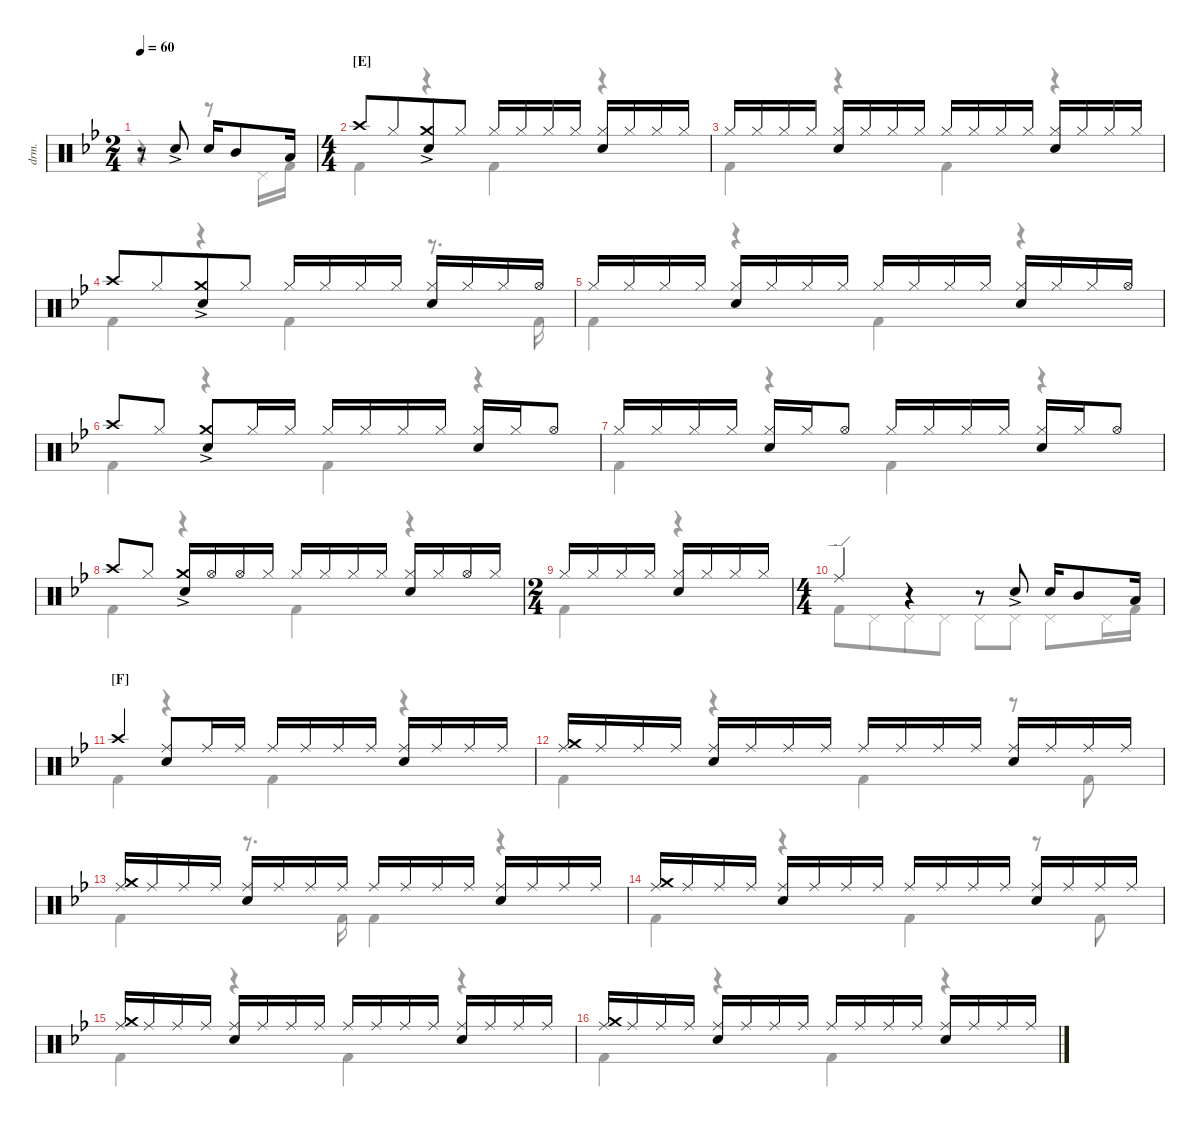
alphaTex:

\defaultSystemsLayout 4
\hideDynamics
\bracketExtendMode nobrackets
\otherSystemsTrackNameOrientation horizontal
\track ("Drumkit" "drm.") {instrument percussion}
\staff {score}
\articulation defaults
\voice
\ts (2 4)
\beaming (8 2 2)
\tempo 60
\clef neutral
\ks bb
r.8{dy mf beam Up} "Snare (hit) 2"{ac acc forcenatural}.8{beam Up} "Snare (hit) 2"{acc forcenatural}.16{beam Up} "Mid Tom (hit)"{acc forcenatural}.8{beam Up} "Low Tom (hit)"{acc forcenatural}.16{dy ff beam Up} |
\ts (4 4)
\beaming (8 2 2 2 2)
\section ("E" "")
"Crash high (hit)"{acc forcenatural}.8{dy mf beam Up} "Hi-Hat (closed)"{acc forcenatural}.8{beam Up beam merge} ("Crash medium (hit)"{ac acc forcenatural} "Snare (hit) 2"{acc forcenatural}).8{beam Up} "Hi-Hat (closed)"{acc forcenatural}.8{beam Up} "Hi-Hat (closed)"{acc forcenatural}.16{beam Up} "Hi-Hat (closed)"{acc forcenatural}.16{dy mp beam Up} "Hi-Hat (closed)"{acc forcenatural}.16{dy mf beam Up} "Hi-Hat (closed)"{acc forcenatural}.16{dy mp beam Up} ("Hi-Hat (closed)"{acc forcenatural} "Snare (hit) 2"{acc forcenatural}).16{dy mf beam Up} "Hi-Hat (closed)"{acc forcenatural}.16{dy mp beam Up} "Hi-Hat (closed)"{acc forcenatural}.16{dy mf beam Up} "Hi-Hat (closed)"{acc forcenatural}.16{dy mp beam Up} |
"Hi-Hat (closed)"{acc forcenatural}.16{dy mf beam Up} "Hi-Hat (closed)"{acc forcenatural}.16{dy mp beam Up} "Hi-Hat (closed)"{acc forcenatural}.16{dy mf beam Up} "Hi-Hat (closed)"{acc forcenatural}.16{dy mp beam Up} ("Hi-Hat (closed)"{acc forcenatural} "Snare (hit) 2"{acc forcenatural}).16{dy mf beam Up} "Hi-Hat (closed)"{acc forcenatural}.16{dy mp beam Up} "Hi-Hat (closed)"{acc forcenatural}.16{dy mf beam Up} "Hi-Hat (closed)"{acc forcenatural}.16{dy mp beam Up} "Hi-Hat (closed)"{acc forcenatural}.16{dy mf beam Up} "Hi-Hat (closed)"{acc forcenatural}.16{dy mp beam Up} "Hi-Hat (closed)"{acc forcenatural}.16{dy mf beam Up} "Hi-Hat (closed)"{acc forcenatural}.16{dy mp beam Up} ("Hi-Hat (closed)"{acc forcenatural} "Snare (hit) 2"{acc forcenatural}).16{dy mf beam Up} "Hi-Hat (closed)"{acc forcenatural}.16{dy mp beam Up} "Hi-Hat (closed)"{acc forcenatural}.16{dy mf beam Up} "Hi-Hat (closed)"{acc forcenatural}.16{dy mp beam Up} |
"Crash high (hit)"{acc forcenatural}.8{dy mf beam Up} "Hi-Hat (closed)"{acc forcenatural}.8{beam Up beam merge} ("Crash medium (hit)"{ac acc forcenatural} "Snare (hit) 2"{acc forcenatural}).8{beam Up} "Hi-Hat (closed)"{acc forcenatural}.8{beam Up} "Hi-Hat (closed)"{acc forcenatural}.16{beam Up} "Hi-Hat (closed)"{acc forcenatural}.16{dy mp beam Up} "Hi-Hat (closed)"{acc forcenatural}.16{dy mf beam Up} "Hi-Hat (closed)"{acc forcenatural}.16{dy mp beam Up} ("Hi-Hat (closed)"{acc forcenatural} "Snare (hit) 2"{acc forcenatural}).16{dy mf beam Up} "Hi-Hat (closed)"{acc forcenatural}.16{dy mp beam Up} "Hi-Hat (closed)"{acc forcenatural}.16{dy mf beam Up} "Hi-Hat (open)"{acc forcenatural}.16{beam Up} |
"Hi-Hat (closed)"{acc forcenatural}.16{beam Up} "Hi-Hat (closed)"{acc forcenatural}.16{dy mp beam Up} "Hi-Hat (closed)"{acc forcenatural}.16{dy mf beam Up} "Hi-Hat (closed)"{acc forcenatural}.16{dy mp beam Up} ("Hi-Hat (closed)"{acc forcenatural} "Snare (hit) 2"{acc forcenatural}).16{dy mf beam Up} "Hi-Hat (closed)"{acc forcenatural}.16{dy mp beam Up} "Hi-Hat (closed)"{acc forcenatural}.16{dy mf beam Up} "Hi-Hat (closed)"{acc forcenatural}.16{dy mp beam Up} "Hi-Hat (closed)"{acc forcenatural}.16{dy mf beam Up} "Hi-Hat (closed)"{acc forcenatural}.16{dy mp beam Up} "Hi-Hat (closed)"{acc forcenatural}.16{dy mf beam Up} "Hi-Hat (closed)"{acc forcenatural}.16{dy mp beam Up} ("Hi-Hat (closed)"{acc forcenatural} "Snare (hit) 2"{acc forcenatural}).16{dy mf beam Up} "Hi-Hat (closed)"{acc forcenatural}.16{dy mp beam Up} "Hi-Hat (closed)"{acc forcenatural}.16{dy mf beam Up} "Hi-Hat (open)"{acc forcenatural}.16{beam Up} |
"Crash high (hit)"{acc forcenatural}.8{beam Up} "Hi-Hat (closed)"{acc forcenatural}.8{beam Up beam split} ("Crash medium (hit)"{ac acc forcenatural} "Snare (hit) 2"{acc forcenatural}).8{beam Up} "Hi-Hat (closed)"{acc forcenatural}.16{beam Up} "Hi-Hat (closed)"{acc forcenatural}.16{beam Up} "Hi-Hat (closed)"{acc forcenatural}.16{beam Up} "Hi-Hat (closed)"{acc forcenatural}.16{dy mp beam Up} "Hi-Hat (closed)"{acc forcenatural}.16{dy mf beam Up} "Hi-Hat (closed)"{acc forcenatural}.16{dy mp beam Up} ("Hi-Hat (closed)"{acc forcenatural} "Snare (hit) 2"{acc forcenatural}).16{dy mf beam Up} "Hi-Hat (closed)"{acc forcenatural}.16{dy mp beam Up} "Hi-Hat (open)"{acc forcenatural}.8{dy mf beam Up} |
"Hi-Hat (closed)"{acc forcenatural}.16{beam Up} "Hi-Hat (closed)"{acc forcenatural}.16{dy mp beam Up} "Hi-Hat (closed)"{acc forcenatural}.16{dy mf beam Up} "Hi-Hat (closed)"{acc forcenatural}.16{dy mp beam Up} ("Hi-Hat (closed)"{acc forcenatural} "Snare (hit) 2"{acc forcenatural}).16{dy mf beam Up} "Hi-Hat (closed)"{acc forcenatural}.16{dy mp beam Up} "Hi-Hat (open)"{acc forcenatural}.8{dy mf beam Up} "Hi-Hat (closed)"{acc forcenatural}.16{beam Up} "Hi-Hat (closed)"{acc forcenatural}.16{dy mp beam Up} "Hi-Hat (closed)"{acc forcenatural}.16{dy mf beam Up} "Hi-Hat (closed)"{acc forcenatural}.16{dy mp beam Up} ("Hi-Hat (closed)"{acc forcenatural} "Snare (hit) 2"{acc forcenatural}).16{dy mf beam Up} "Hi-Hat (closed)"{acc forcenatural}.16{dy mp beam Up} "Hi-Hat (open)"{acc forcenatural}.8{dy mf beam Up} |
"Crash high (hit)"{acc forcenatural}.8{beam Up} "Hi-Hat (closed)"{acc forcenatural}.8{beam Up beam split} ("Crash medium (hit)"{ac acc forcenatural} "Snare (hit) 2"{acc forcenatural}).16{beam Up} "Hi-Hat (open)"{acc forcenatural}.16{beam Up} "Hi-Hat (open)"{acc forcenatural}.16{beam Up} "Hi-Hat (closed)"{acc forcenatural}.16{beam Up} "Hi-Hat (closed)"{acc forcenatural}.16{beam Up} "Hi-Hat (closed)"{acc forcenatural}.16{dy mp beam Up} "Hi-Hat (closed)"{acc forcenatural}.16{dy mf beam Up} "Hi-Hat (closed)"{acc forcenatural}.16{dy mp beam Up} ("Hi-Hat (closed)"{acc forcenatural} "Snare (hit) 2"{acc forcenatural}).16{dy mf beam Up} "Hi-Hat (closed)"{acc forcenatural}.16{dy mp beam Up} "Hi-Hat (open)"{acc forcenatural}.16{dy mf beam Up} "Hi-Hat (closed)"{acc forcenatural}.16{beam Up} |
\ts (2 4)
\beaming (8 2 2)
"Hi-Hat (closed)"{acc forcenatural}.16{beam Up} "Hi-Hat (closed)"{acc forcenatural}.16{dy mp beam Up} "Hi-Hat (closed)"{acc forcenatural}.16{dy mf beam Up} "Hi-Hat (closed)"{acc forcenatural}.16{dy mp beam Up} ("Hi-Hat (closed)"{acc forcenatural} "Snare (hit) 2"{acc forcenatural}).16{dy mf beam Up} "Hi-Hat (closed)"{acc forcenatural}.16{dy mp beam Up} "Hi-Hat (closed)"{acc forcenatural}.16{dy mf beam Up} "Hi-Hat (closed)"{acc forcenatural}.16{dy mp beam Up} |
\ts (4 4)
\beaming (8 2 2 2 2)
"Ride (edge)"{acc forcenatural}.4{dy mf beam Up} r.4{beam Up} r.8{beam Up} "Snare (hit) 2"{ac acc forcenatural}.8{beam Up} "Snare (hit) 2"{acc forcenatural}.16{beam Up} "Mid Tom (hit)"{acc forcenatural}.8{beam Up} "Low Tom (hit)"{acc forcenatural}.16{dy ff beam Up} |
\section ("F" "")
"Crash high (hit)"{acc forcenatural}.4{dy mf beam Up} ("Ride (middle)"{acc forcenatural} "Snare (hit) 2"{acc forcenatural}).8{beam Up} "Ride (middle)"{acc forcenatural}.16{beam Up} "Ride (middle)"{acc forcenatural}.16{dy mp beam Up} "Ride (middle)"{acc forcenatural}.16{dy mf beam Up} "Ride (middle)"{acc forcenatural}.16{dy mp beam Up} "Ride (middle)"{acc forcenatural}.16{dy mf beam Up} "Ride (middle)"{acc forcenatural}.16{dy mp beam Up} ("Ride (middle)"{acc forcenatural} "Snare (hit) 2"{acc forcenatural}).16{dy mf beam Up} "Ride (middle)"{acc forcenatural}.16{dy mp beam Up} "Ride (middle)"{acc forcenatural}.16{beam Up} "Ride (middle)"{acc forcenatural}.16{dy mf beam Up} |
("Crash medium (hit)"{acc forcenatural} "Ride (middle)"{acc forcenatural}).16{beam Up} "Ride (middle)"{acc forcenatural}.16{dy mp beam Up} "Ride (middle)"{acc forcenatural}.16{dy mf beam Up} "Ride (middle)"{acc forcenatural}.16{dy mp beam Up} ("Ride (middle)"{acc forcenatural} "Snare (hit) 2"{acc forcenatural}).16{dy mf beam Up} "Ride (middle)"{acc forcenatural}.16{dy mp beam Up} "Ride (middle)"{acc forcenatural}.16{beam Up} "Ride (middle)"{acc forcenatural}.16{dy mf beam Up} "Ride (middle)"{acc forcenatural}.16{beam Up} "Ride (middle)"{acc forcenatural}.16{dy mp beam Up} "Ride (middle)"{acc forcenatural}.16{dy mf beam Up} "Ride (middle)"{acc forcenatural}.16{dy mp beam Up} ("Ride (middle)"{acc forcenatural} "Snare (hit) 2"{acc forcenatural}).16{dy mf beam Up} "Ride (middle)"{acc forcenatural}.16{dy mp beam Up} "Ride (middle)"{acc forcenatural}.16{beam Up} "Ride (middle)"{acc forcenatural}.16{dy mf beam Up} |
("Ride (middle)"{acc forcenatural} "Crash medium (hit)"{acc forcenatural}).16{beam Up} "Ride (middle)"{acc forcenatural}.16{dy mp beam Up} "Ride (middle)"{acc forcenatural}.16{dy mf beam Up} "Ride (middle)"{acc forcenatural}.16{dy mp beam Up} ("Ride (middle)"{acc forcenatural} "Snare (hit) 2"{acc forcenatural}).16{dy mf beam Up} "Ride (middle)"{acc forcenatural}.16{dy mp beam Up} "Ride (middle)"{acc forcenatural}.16{beam Up} "Ride (middle)"{acc forcenatural}.16{dy mf beam Up} "Ride (middle)"{acc forcenatural}.16{beam Up} "Ride (middle)"{acc forcenatural}.16{dy mp beam Up} "Ride (middle)"{acc forcenatural}.16{dy mf beam Up} "Ride (middle)"{acc forcenatural}.16{dy mp beam Up} ("Ride (middle)"{acc forcenatural} "Snare (hit) 2"{acc forcenatural}).16{dy mf beam Up} "Ride (middle)"{acc forcenatural}.16{dy mp beam Up} "Ride (middle)"{acc forcenatural}.16{beam Up} "Ride (middle)"{acc forcenatural}.16{dy mf beam Up} |
("Crash medium (hit)"{acc forcenatural} "Ride (middle)"{acc forcenatural}).16{beam Up} "Ride (middle)"{acc forcenatural}.16{dy mp beam Up} "Ride (middle)"{acc forcenatural}.16{dy mf beam Up} "Ride (middle)"{acc forcenatural}.16{dy mp beam Up} ("Ride (middle)"{acc forcenatural} "Snare (hit) 2"{acc forcenatural}).16{dy mf beam Up} "Ride (middle)"{acc forcenatural}.16{dy mp beam Up} "Ride (middle)"{acc forcenatural}.16{beam Up} "Ride (middle)"{acc forcenatural}.16{dy mf beam Up} "Ride (middle)"{acc forcenatural}.16{beam Up} "Ride (middle)"{acc forcenatural}.16{dy mp beam Up} "Ride (middle)"{acc forcenatural}.16{dy mf beam Up} "Ride (middle)"{acc forcenatural}.16{dy mp beam Up} ("Ride (middle)"{acc forcenatural} "Snare (hit) 2"{acc forcenatural}).16{dy mf beam Up} "Ride (middle)"{acc forcenatural}.16{dy mp beam Up} "Ride (middle)"{acc forcenatural}.16{beam Up} "Ride (middle)"{acc forcenatural}.16{dy mf beam Up} |
("Crash medium (hit)"{acc forcenatural} "Ride (middle)"{acc forcenatural}).16{beam Up} "Ride (middle)"{acc forcenatural}.16{dy mp beam Up} "Ride (middle)"{acc forcenatural}.16{dy mf beam Up} "Ride (middle)"{acc forcenatural}.16{dy mp beam Up} ("Ride (middle)"{acc forcenatural} "Snare (hit) 2"{acc forcenatural}).16{dy mf beam Up} "Ride (middle)"{acc forcenatural}.16{dy mp beam Up} "Ride (middle)"{acc forcenatural}.16{beam Up} "Ride (middle)"{acc forcenatural}.16{dy mf beam Up} "Ride (middle)"{acc forcenatural}.16{beam Up} "Ride (middle)"{acc forcenatural}.16{dy mp beam Up} "Ride (middle)"{acc forcenatural}.16{dy mf beam Up} "Ride (middle)"{acc forcenatural}.16{dy mp beam Up} ("Ride (middle)"{acc forcenatural} "Snare (hit) 2"{acc forcenatural}).16{dy mf beam Up} "Ride (middle)"{acc forcenatural}.16{dy mp beam Up} "Ride (middle)"{acc forcenatural}.16{beam Up} "Ride (middle)"{acc forcenatural}.16{dy mf beam Up} |
("Crash medium (hit)"{acc forcenatural} "Ride (middle)"{acc forcenatural}).16{beam Up} "Ride (middle)"{acc forcenatural}.16{dy mp beam Up} "Ride (middle)"{acc forcenatural}.16{dy mf beam Up} "Ride (middle)"{acc forcenatural}.16{dy mp beam Up} ("Ride (middle)"{acc forcenatural} "Snare (hit) 2"{acc forcenatural}).16{dy mf beam Up} "Ride (middle)"{acc forcenatural}.16{dy mp beam Up} "Ride (middle)"{acc forcenatural}.16{beam Up} "Ride (middle)"{acc forcenatural}.16{dy mf beam Up} "Ride (middle)"{acc forcenatural}.16{beam Up} "Ride (middle)"{acc forcenatural}.16{dy mp beam Up} "Ride (middle)"{acc forcenatural}.16{dy mf beam Up} "Ride (middle)"{acc forcenatural}.16{dy mp beam Up} ("Ride (middle)"{acc forcenatural} "Snare (hit) 2"{acc forcenatural}).16{dy mf beam Up} "Ride (middle)"{acc forcenatural}.16{dy mp beam Up} "Ride (middle)"{acc forcenatural}.16{beam Up} "Ride (middle)"{acc forcenatural}.16{dy mf beam Up}
\voice
\clef neutral
\ottava regular
\simile none
\ks bb
r.4{dy mf beam Down} r.8{beam Down} "Pedal Hi-Hat (hit)"{acc forcenatural}.16{beam Down} "Kick (hit) 2"{acc forcenatural}.16{beam Down} |
"Kick (hit) 2"{acc forcenatural}.4{beam Down} r.4{beam Down} "Kick (hit) 2"{acc forcenatural}.4{beam Down} r.4{beam Down} |
"Kick (hit) 2"{acc forcenatural}.4{beam Down} r.4{beam Down} "Kick (hit) 2"{acc forcenatural}.4{beam Down} r.4{beam Down} |
"Kick (hit) 2"{acc forcenatural}.4{beam Down} r.4{beam Down} "Kick (hit) 2"{acc forcenatural}.4{beam Down} r.8{d beam Down} "Kick (hit) 2"{acc forcenatural}.16{beam Down} |
"Kick (hit) 2"{acc forcenatural}.4{beam Down} r.4{beam Down} "Kick (hit) 2"{acc forcenatural}.4{beam Down} r.4{beam Down} |
"Kick (hit) 2"{acc forcenatural}.4{beam Down} r.4{beam Down} "Kick (hit) 2"{acc forcenatural}.4{beam Down} r.4{beam Down} |
"Kick (hit) 2"{acc forcenatural}.4{beam Down} r.4{beam Down} "Kick (hit) 2"{acc forcenatural}.4{beam Down} r.4{beam Down} |
"Kick (hit) 2"{acc forcenatural}.4{beam Down} r.4{beam Down} "Kick (hit) 2"{acc forcenatural}.4{beam Down} r.4{beam Down} |
"Kick (hit) 2"{acc forcenatural}.4{beam Down} r.4{beam Down} |
"Kick (hit) 2"{acc forcenatural}.8{beam Down} "Pedal Hi-Hat (hit)"{acc forcenatural}.8{beam Down beam merge} "Pedal Hi-Hat (hit)"{acc forcenatural}.8{beam Down} "Pedal Hi-Hat (hit)"{acc forcenatural}.8{beam Down} "Pedal Hi-Hat (hit)"{acc forcenatural}.8{beam Down} "Pedal Hi-Hat (hit)"{acc forcenatural}.8{beam Down} "Pedal Hi-Hat (hit)"{acc forcenatural}.8{beam Down} "Pedal Hi-Hat (hit)"{acc forcenatural}.16{beam Down} "Kick (hit) 2"{acc forcenatural}.16{beam Down} |
"Kick (hit) 2"{acc forcenatural}.4{beam Down} r.4{beam Down} "Kick (hit) 2"{acc forcenatural}.4{beam Down} r.4{beam Down} |
"Kick (hit) 2"{acc forcenatural}.4{beam Down} r.4{beam Down} "Kick (hit) 2"{acc forcenatural}.4{beam Down} r.8{beam Down} "Kick (hit) 2"{acc forcenatural}.8{beam Down} |
"Kick (hit) 2"{acc forcenatural}.4{beam Down} r.8{d beam Down} "Kick (hit) 2"{acc forcenatural}.16{beam Down} "Kick (hit) 2"{acc forcenatural}.4{beam Down} r.4{beam Down} |
"Kick (hit) 2"{acc forcenatural}.4{beam Down} r.4{beam Down} "Kick (hit) 2"{acc forcenatural}.4{beam Down} r.8{beam Down} "Kick (hit) 2"{acc forcenatural}.8{beam Down} |
"Kick (hit) 2"{acc forcenatural}.4{beam Down} r.4{beam Down} "Kick (hit) 2"{acc forcenatural}.4{beam Down} r.4{beam Down} |
"Kick (hit) 2"{acc forcenatural}.4{beam Down} r.4{beam Down} "Kick (hit) 2"{acc forcenatural}.4{beam Down} r.4{beam Down}
